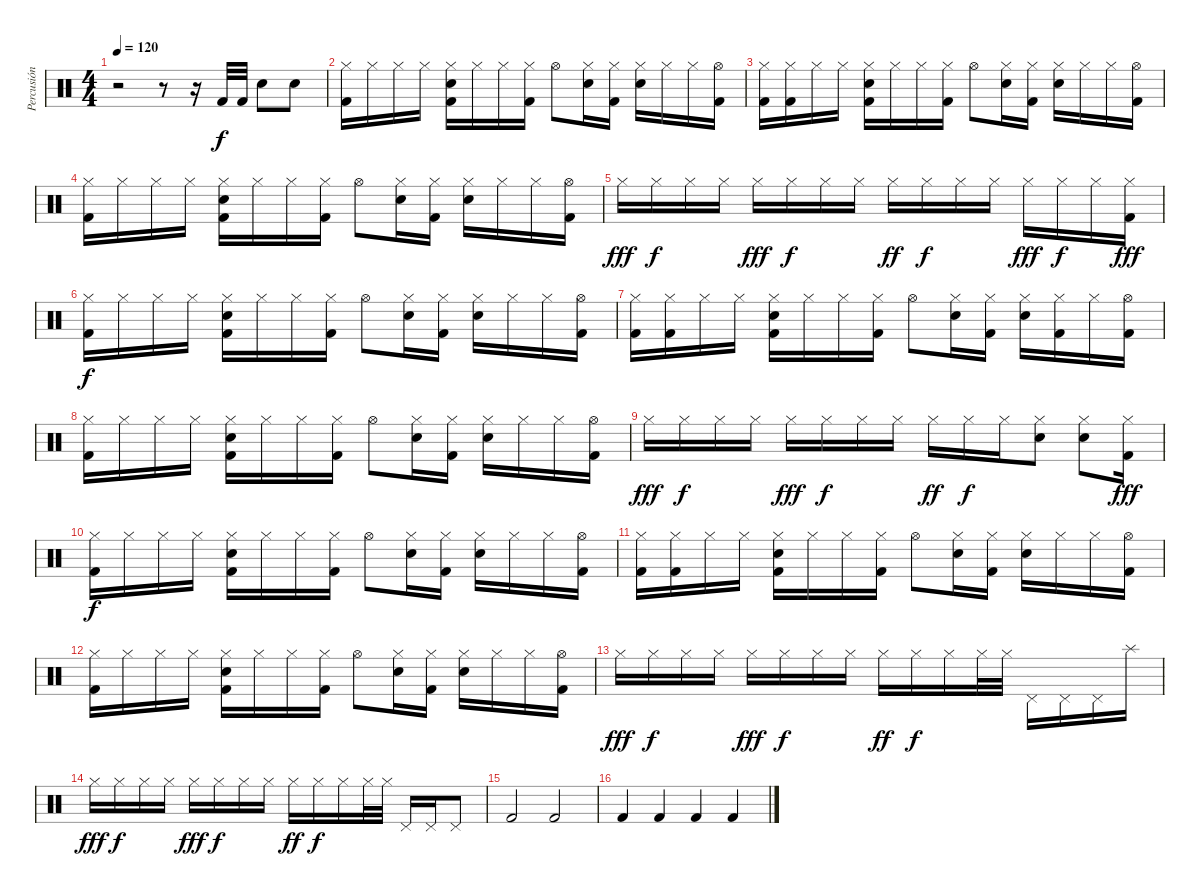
\track ("Percusión" "Percusión") {instrument percussion}
\staff {score}
\articulation defaults
\ts (4 4)
\tempo 120
\clef neutral
\ks c
r.2{dy f} r.8 r.16 "Kick (hit) 2".32 "Kick (hit) 2".32 "Snare (hit) 2".8 "Snare (hit) 2".8 |
("Hi-Hat (closed)" "Kick (hit) 2").16 "Hi-Hat (closed)".16 "Hi-Hat (closed)".16 "Hi-Hat (closed)".16 ("Hi-Hat (closed)" "Snare (hit) 2" "Kick (hit) 2").16 "Hi-Hat (closed)".16 "Hi-Hat (closed)".16 ("Hi-Hat (closed)" "Kick (hit) 2").16 "Hi-Hat (open)".8 ("Hi-Hat (closed)" "Snare (hit) 2").16 ("Hi-Hat (closed)" "Kick (hit) 2").16 ("Hi-Hat (closed)" "Snare (hit) 2").16 "Hi-Hat (closed)".16 "Hi-Hat (closed)".16 ("Hi-Hat (open)" "Kick (hit) 2").16 |
("Hi-Hat (closed)" "Kick (hit) 2").16 ("Hi-Hat (closed)" "Kick (hit) 2").16 "Hi-Hat (closed)".16 "Hi-Hat (closed)".16 ("Hi-Hat (closed)" "Snare (hit) 2" "Kick (hit) 2").16 "Hi-Hat (closed)".16 "Hi-Hat (closed)".16 ("Hi-Hat (closed)" "Kick (hit) 2").16 "Hi-Hat (open)".8 ("Hi-Hat (closed)" "Snare (hit) 2").16 ("Hi-Hat (closed)" "Kick (hit) 2").16 ("Hi-Hat (closed)" "Snare (hit) 2").16 "Hi-Hat (closed)".16 "Hi-Hat (closed)".16 ("Hi-Hat (open)" "Kick (hit) 2").16 |
("Hi-Hat (closed)" "Kick (hit) 2").16 "Hi-Hat (closed)".16 "Hi-Hat (closed)".16 "Hi-Hat (closed)".16 ("Hi-Hat (closed)" "Snare (hit) 2" "Kick (hit) 2").16 "Hi-Hat (closed)".16 "Hi-Hat (closed)".16 ("Hi-Hat (closed)" "Kick (hit) 2").16 "Hi-Hat (open)".8 ("Hi-Hat (closed)" "Snare (hit) 2").16 ("Hi-Hat (closed)" "Kick (hit) 2").16 ("Hi-Hat (closed)" "Snare (hit) 2").16 "Hi-Hat (closed)".16 "Hi-Hat (closed)".16 ("Hi-Hat (open)" "Kick (hit) 2").16 |
"Hi-Hat (closed)".16{dy fff} "Hi-Hat (closed)".16{dy f} "Hi-Hat (closed)".16 "Hi-Hat (closed)".16 "Hi-Hat (closed)".16{dy fff} "Hi-Hat (closed)".16{dy f} "Hi-Hat (closed)".16 "Hi-Hat (closed)".16 "Hi-Hat (closed)".16{dy ff} "Hi-Hat (closed)".16{dy f} "Hi-Hat (closed)".16 "Hi-Hat (closed)".16 "Hi-Hat (closed)".16{dy fff} "Hi-Hat (closed)".16{dy f} "Hi-Hat (closed)".16 ("Hi-Hat (closed)" "Kick (hit) 2").16{dy fff} |
("Hi-Hat (closed)" "Kick (hit) 2").16{dy f} "Hi-Hat (closed)".16 "Hi-Hat (closed)".16 "Hi-Hat (closed)".16 ("Hi-Hat (closed)" "Snare (hit) 2" "Kick (hit) 2").16 "Hi-Hat (closed)".16 "Hi-Hat (closed)".16 ("Hi-Hat (closed)" "Kick (hit) 2").16 "Hi-Hat (open)".8 ("Hi-Hat (closed)" "Snare (hit) 2").16 ("Hi-Hat (closed)" "Kick (hit) 2").16 ("Hi-Hat (closed)" "Snare (hit) 2").16 "Hi-Hat (closed)".16 "Hi-Hat (closed)".16 ("Hi-Hat (open)" "Kick (hit) 2").16 |
("Hi-Hat (closed)" "Kick (hit) 2").16 ("Hi-Hat (closed)" "Kick (hit) 2").16 "Hi-Hat (closed)".16 "Hi-Hat (closed)".16 ("Hi-Hat (closed)" "Snare (hit) 2" "Kick (hit) 2").16 "Hi-Hat (closed)".16 "Hi-Hat (closed)".16 ("Hi-Hat (closed)" "Kick (hit) 2").16 "Hi-Hat (open)".8 ("Hi-Hat (closed)" "Snare (hit) 2").16 ("Hi-Hat (closed)" "Kick (hit) 2").16 ("Hi-Hat (closed)" "Snare (hit) 2").16 ("Hi-Hat (closed)" "Kick (hit) 2").16 "Hi-Hat (closed)".16 ("Hi-Hat (open)" "Kick (hit) 2").16 |
("Hi-Hat (closed)" "Kick (hit) 2").16 "Hi-Hat (closed)".16 "Hi-Hat (closed)".16 "Hi-Hat (closed)".16 ("Hi-Hat (closed)" "Snare (hit) 2" "Kick (hit) 2").16 "Hi-Hat (closed)".16 "Hi-Hat (closed)".16 ("Hi-Hat (closed)" "Kick (hit) 2").16 "Hi-Hat (open)".8 ("Hi-Hat (closed)" "Snare (hit) 2").16 ("Hi-Hat (closed)" "Kick (hit) 2").16 ("Hi-Hat (closed)" "Snare (hit) 2").16 "Hi-Hat (closed)".16 "Hi-Hat (closed)".16 ("Hi-Hat (open)" "Kick (hit) 2").16 |
"Hi-Hat (closed)".16{dy fff} "Hi-Hat (closed)".16{dy f} "Hi-Hat (closed)".16 "Hi-Hat (closed)".16 "Hi-Hat (closed)".16{dy fff} "Hi-Hat (closed)".16{dy f} "Hi-Hat (closed)".16 "Hi-Hat (closed)".16 "Hi-Hat (closed)".16{dy ff} "Hi-Hat (closed)".16{dy f} "Hi-Hat (closed)".16 ("Hi-Hat (closed)" "Snare (hit) 2").8 ("Hi-Hat (closed)" "Snare (hit) 2").8 ("Hi-Hat (closed)" "Kick (hit) 2").16{dy fff} |
("Hi-Hat (closed)" "Kick (hit) 2").16{dy f} "Hi-Hat (closed)".16 "Hi-Hat (closed)".16 "Hi-Hat (closed)".16 ("Hi-Hat (closed)" "Snare (hit) 2" "Kick (hit) 2").16 "Hi-Hat (closed)".16 "Hi-Hat (closed)".16 ("Hi-Hat (closed)" "Kick (hit) 2").16 "Hi-Hat (open)".8 ("Hi-Hat (closed)" "Snare (hit) 2").16 ("Hi-Hat (closed)" "Kick (hit) 2").16 ("Hi-Hat (closed)" "Snare (hit) 2").16 "Hi-Hat (closed)".16 "Hi-Hat (closed)".16 ("Hi-Hat (open)" "Kick (hit) 2").16 |
("Hi-Hat (closed)" "Kick (hit) 2").16 ("Hi-Hat (closed)" "Kick (hit) 2").16 "Hi-Hat (closed)".16 "Hi-Hat (closed)".16 ("Hi-Hat (closed)" "Snare (hit) 2" "Kick (hit) 2").16 "Hi-Hat (closed)".16 "Hi-Hat (closed)".16 ("Hi-Hat (closed)" "Kick (hit) 2").16 "Hi-Hat (open)".8 ("Hi-Hat (closed)" "Snare (hit) 2").16 ("Hi-Hat (closed)" "Kick (hit) 2").16 ("Hi-Hat (closed)" "Snare (hit) 2").16 "Hi-Hat (closed)".16 "Hi-Hat (closed)".16 ("Hi-Hat (open)" "Kick (hit) 2").16 |
("Hi-Hat (closed)" "Kick (hit) 2").16 "Hi-Hat (closed)".16 "Hi-Hat (closed)".16 "Hi-Hat (closed)".16 ("Hi-Hat (closed)" "Snare (hit) 2" "Kick (hit) 2").16 "Hi-Hat (closed)".16 "Hi-Hat (closed)".16 ("Hi-Hat (closed)" "Kick (hit) 2").16 "Hi-Hat (open)".8 ("Hi-Hat (closed)" "Snare (hit) 2").16 ("Hi-Hat (closed)" "Kick (hit) 2").16 ("Hi-Hat (closed)" "Snare (hit) 2").16 "Hi-Hat (closed)".16 "Hi-Hat (closed)".16 ("Hi-Hat (open)" "Kick (hit) 2").16 |
"Hi-Hat (closed)".16{dy fff} "Hi-Hat (closed)".16{dy f} "Hi-Hat (closed)".16 "Hi-Hat (closed)".16 "Hi-Hat (closed)".16{dy fff} "Hi-Hat (closed)".16{dy f} "Hi-Hat (closed)".16 "Hi-Hat (closed)".16 "Hi-Hat (closed)".16{dy ff} "Hi-Hat (closed)".16{dy f} "Hi-Hat (closed)".16 "Hi-Hat (closed)".32 "Hi-Hat (closed)".32 "Pedal Hi-Hat (hit)".16 "Pedal Hi-Hat (hit)".16 "Pedal Hi-Hat (hit)".16 "Splash (hit)".16 |
"Hi-Hat (closed)".16{dy fff} "Hi-Hat (closed)".16{dy f} "Hi-Hat (closed)".16 "Hi-Hat (closed)".16 "Hi-Hat (closed)".16{dy fff} "Hi-Hat (closed)".16{dy f} "Hi-Hat (closed)".16 "Hi-Hat (closed)".16 "Hi-Hat (closed)".16{dy ff} "Hi-Hat (closed)".16{dy f} "Hi-Hat (closed)".16 "Hi-Hat (closed)".32 "Hi-Hat (closed)".32 "Pedal Hi-Hat (hit)".16 "Pedal Hi-Hat (hit)".16 "Pedal Hi-Hat (hit)".8 |
"Kick (hit) 2".2 "Kick (hit) 2".2 |
"Kick (hit) 2".4 "Kick (hit) 2".4 "Kick (hit) 2".4 "Kick (hit) 2".4
